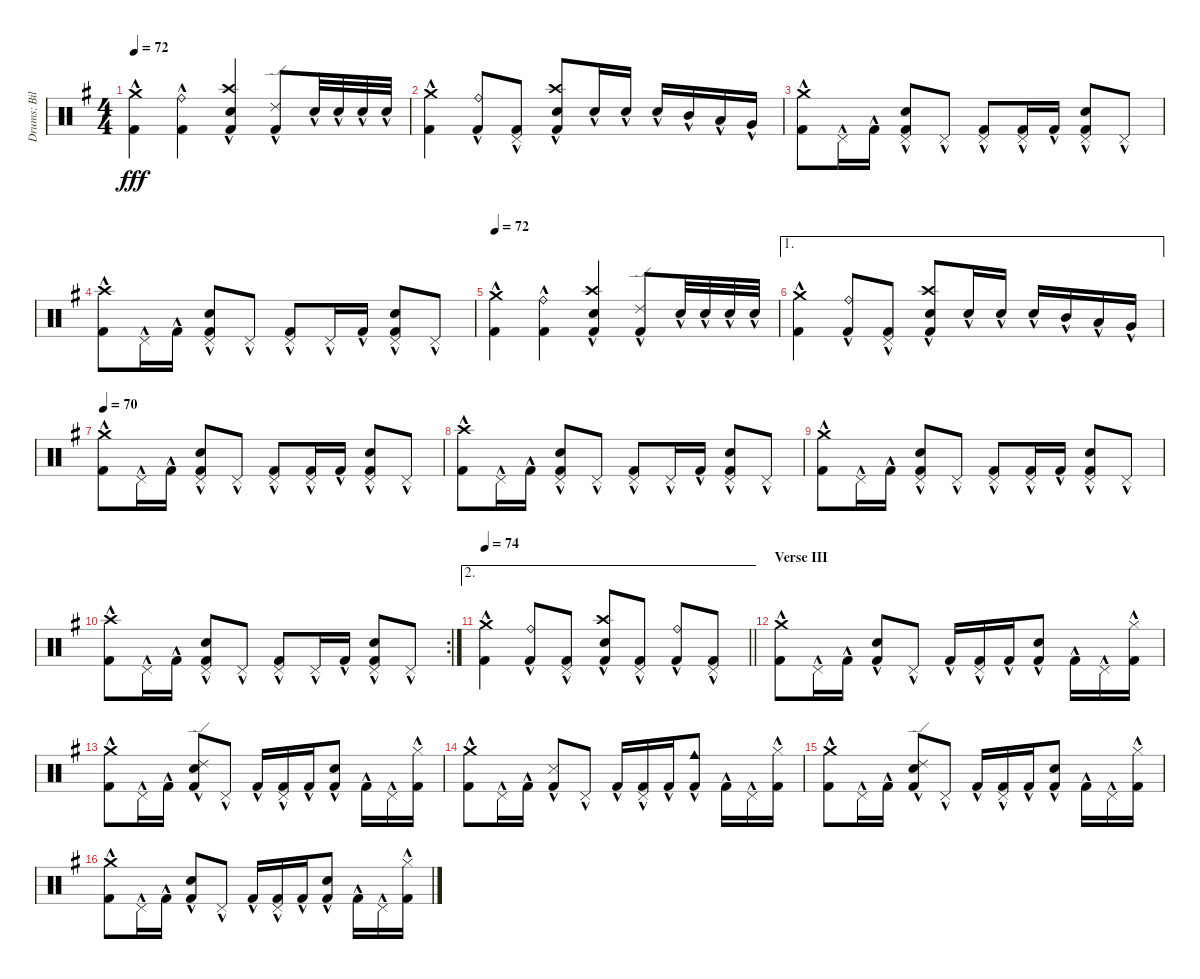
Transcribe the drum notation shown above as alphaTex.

\track ("Drums: Bill" "Drums: Bil") {instrument percussion}
\staff {score}
\articulation defaults
\ts (4 4)
\tempo 72
\clef neutral
\ks g
("Crash medium (hit)"{hac} "Kick (hit) 2"{hac}).4{dy fff} ("Ride (bell)"{hac} "Kick (hit) 2"{hac}).4 ("Crash high (hit)"{hac} "Snare (hit) 2"{hac} "Kick (hit) 2"{hac}).4 ("Ride (edge) 2"{hac} "Kick (hit) 2"{hac}).8 "Snare (hit) 2"{hac}.32 "Snare (hit) 2"{hac}.32 "Snare (hit) 2"{hac}.32 "Snare (hit) 2"{hac}.32 |
("Crash medium (hit)"{hac} "Kick (hit) 2"{hac}).4 ("Ride (bell)"{hac} "Kick (hit) 2"{hac}).8 ("Pedal Hi-Hat (hit)"{hac} "Kick (hit) 2"{hac}).8 ("Crash high (hit)"{hac} "Snare (hit) 2"{hac} "Kick (hit) 2"{hac}).8 "Snare (hit) 2"{hac}.16 "Snare (hit) 2"{hac}.16 "Snare (hit) 2"{hac}.16 "Mid Tom (hit)"{hac}.16 "Low Tom (hit)"{hac}.16 "Very Low Tom (hit)"{hac}.16 |
("Crash medium (hit)"{hac} "Kick (hit) 2"{hac}).8 "Pedal Hi-Hat (hit)"{hac}.16 "Kick (hit) 2"{hac}.16 ("Pedal Hi-Hat (hit)"{hac} "Snare (hit) 2"{hac} "Kick (hit) 2"{hac}).8 "Pedal Hi-Hat (hit)"{hac}.8 ("Pedal Hi-Hat (hit)"{hac} "Kick (hit) 2"{hac}).8 ("Pedal Hi-Hat (hit)"{hac} "Kick (hit) 2"{hac}).16 "Kick (hit) 2"{hac}.16 ("Pedal Hi-Hat (hit)"{hac} "Snare (hit) 2"{hac} "Kick (hit) 2"{hac}).8 "Pedal Hi-Hat (hit)"{hac}.8 |
("Crash high (hit)"{hac} "Kick (hit) 2"{hac}).8 "Pedal Hi-Hat (hit)"{hac}.16 "Kick (hit) 2"{hac}.16 ("Pedal Hi-Hat (hit)"{hac} "Snare (hit) 2"{hac} "Kick (hit) 2"{hac}).8 "Pedal Hi-Hat (hit)"{hac}.8 ("Pedal Hi-Hat (hit)"{hac} "Kick (hit) 2"{hac}).8 "Pedal Hi-Hat (hit)"{hac}.16 "Kick (hit) 2"{hac}.16 ("Pedal Hi-Hat (hit)"{hac} "Snare (hit) 2"{hac} "Kick (hit) 2"{hac}).8 "Pedal Hi-Hat (hit)"{hac}.8 |
\tempo 72
("Crash medium (hit)"{hac} "Kick (hit) 2"{hac}).4 ("Ride (bell)"{hac} "Kick (hit) 2"{hac}).4 ("Crash high (hit)"{hac} "Snare (hit) 2"{hac} "Kick (hit) 2"{hac}).4 ("Ride (edge) 2"{hac} "Kick (hit) 2"{hac}).8 "Snare (hit) 2"{hac}.32 "Snare (hit) 2"{hac}.32 "Snare (hit) 2"{hac}.32 "Snare (hit) 2"{hac}.32 |
\ae 1
("Crash medium (hit)"{hac} "Kick (hit) 2"{hac}).4 ("Ride (bell)"{hac} "Kick (hit) 2"{hac}).8 ("Pedal Hi-Hat (hit)"{hac} "Kick (hit) 2"{hac}).8 ("Crash high (hit)"{hac} "Snare (hit) 2"{hac} "Kick (hit) 2"{hac}).8 "Snare (hit) 2"{hac}.16 "Snare (hit) 2"{hac}.16 "Snare (hit) 2"{hac}.16 "Mid Tom (hit)"{hac}.16 "Low Tom (hit)"{hac}.16 "Very Low Tom (hit)"{hac}.16 |
\tempo 70
("Crash medium (hit)"{hac} "Kick (hit) 2"{hac}).8 "Pedal Hi-Hat (hit)"{hac}.16 "Kick (hit) 2"{hac}.16 ("Pedal Hi-Hat (hit)"{hac} "Snare (hit) 2"{hac} "Kick (hit) 2"{hac}).8 "Pedal Hi-Hat (hit)"{hac}.8 ("Pedal Hi-Hat (hit)"{hac} "Kick (hit) 2"{hac}).8 ("Pedal Hi-Hat (hit)"{hac} "Kick (hit) 2"{hac}).16 "Kick (hit) 2"{hac}.16 ("Pedal Hi-Hat (hit)"{hac} "Snare (hit) 2"{hac} "Kick (hit) 2"{hac}).8 "Pedal Hi-Hat (hit)"{hac}.8 |
("Crash high (hit)"{hac} "Kick (hit) 2"{hac}).8 "Pedal Hi-Hat (hit)"{hac}.16 "Kick (hit) 2"{hac}.16 ("Pedal Hi-Hat (hit)"{hac} "Snare (hit) 2"{hac} "Kick (hit) 2"{hac}).8 "Pedal Hi-Hat (hit)"{hac}.8 ("Pedal Hi-Hat (hit)"{hac} "Kick (hit) 2"{hac}).8 "Pedal Hi-Hat (hit)"{hac}.16 "Kick (hit) 2"{hac}.16 ("Pedal Hi-Hat (hit)"{hac} "Snare (hit) 2"{hac} "Kick (hit) 2"{hac}).8 "Pedal Hi-Hat (hit)"{hac}.8 |
("Crash medium (hit)"{hac} "Kick (hit) 2"{hac}).8 "Pedal Hi-Hat (hit)"{hac}.16 "Kick (hit) 2"{hac}.16 ("Pedal Hi-Hat (hit)"{hac} "Snare (hit) 2"{hac} "Kick (hit) 2"{hac}).8 "Pedal Hi-Hat (hit)"{hac}.8 ("Pedal Hi-Hat (hit)"{hac} "Kick (hit) 2"{hac}).8 ("Pedal Hi-Hat (hit)"{hac} "Kick (hit) 2"{hac}).16 "Kick (hit) 2"{hac}.16 ("Pedal Hi-Hat (hit)"{hac} "Snare (hit) 2"{hac} "Kick (hit) 2"{hac}).8 "Pedal Hi-Hat (hit)"{hac}.8 |
\rc 2
("Crash high (hit)"{hac} "Kick (hit) 2"{hac}).8 "Pedal Hi-Hat (hit)"{hac}.16 "Kick (hit) 2"{hac}.16 ("Pedal Hi-Hat (hit)"{hac} "Snare (hit) 2"{hac} "Kick (hit) 2"{hac}).8 "Pedal Hi-Hat (hit)"{hac}.8 ("Pedal Hi-Hat (hit)"{hac} "Kick (hit) 2"{hac}).8 "Pedal Hi-Hat (hit)"{hac}.16 "Kick (hit) 2"{hac}.16 ("Pedal Hi-Hat (hit)"{hac} "Snare (hit) 2"{hac} "Kick (hit) 2"{hac}).8 "Pedal Hi-Hat (hit)"{hac}.8 |
\ae 2
\tempo 74
\barLineRight lightlight
("Crash medium (hit)"{hac} "Kick (hit) 2"{hac}).4 ("Ride (bell)"{hac} "Kick (hit) 2"{hac}).8 ("Pedal Hi-Hat (hit)"{hac} "Kick (hit) 2"{hac}).8 ("Crash high (hit)"{hac} "Snare (hit) 2"{hac} "Kick (hit) 2"{hac}).8 ("Pedal Hi-Hat (hit)"{hac} "Kick (hit) 2"{hac}).8 ("Ride (bell)"{hac} "Kick (hit) 2"{hac}).8 ("Pedal Hi-Hat (hit)"{hac} "Kick (hit) 2"{hac}).8 |
\section ("" "Verse III")
("Crash medium (hit)"{hac} "Kick (hit) 2"{hac}).8 "Pedal Hi-Hat (hit)"{hac}.16 "Kick (hit) 2"{hac}.16 ("Snare (hit) 2"{hac} "Kick (hit) 2"{hac}).8 "Pedal Hi-Hat (hit)"{hac}.8 "Kick (hit) 2"{hac}.16 ("Pedal Hi-Hat (hit)"{hac} "Kick (hit) 2"{hac}).16 "Kick (hit) 2"{hac}.16 ("Snare (hit) 2"{hac} "Kick (hit) 2"{hac}).8 "Kick (hit) 2"{hac}.16 "Pedal Hi-Hat (hit)"{hac}.16 ("Hi-Hat (closed)" "Kick (hit) 2"{hac}).16 |
("Crash medium (hit)"{hac} "Kick (hit) 2"{hac}).8 "Pedal Hi-Hat (hit)"{hac}.16 "Kick (hit) 2"{hac}.16 ("Ride (edge) 2" "Snare (hit) 2"{hac} "Kick (hit) 2"{hac}).8 "Pedal Hi-Hat (hit)"{hac}.8 "Kick (hit) 2"{hac}.16 ("Pedal Hi-Hat (hit)"{hac} "Kick (hit) 2"{hac}).16 "Kick (hit) 2"{hac}.16 ("Snare (hit) 2"{hac} "Kick (hit) 2"{hac}).8 "Kick (hit) 2"{hac}.16 "Pedal Hi-Hat (hit)"{hac}.16 ("Hi-Hat (closed)" "Kick (hit) 2"{hac}).16 |
("Crash medium (hit)"{hac} "Kick (hit) 2"{hac}).8 "Pedal Hi-Hat (hit)"{hac}.16 "Kick (hit) 2"{hac}.16 ("Kick (hit) 2"{hac} "Snare (side stick) 3").8 "Pedal Hi-Hat (hit)"{hac}.8 "Kick (hit) 2"{hac}.16 ("Pedal Hi-Hat (hit)"{hac} "Kick (hit) 2"{hac}).16 "Kick (hit) 2"{hac}.16 ("Kick (hit) 2"{hac} "Cowbell medium (hit)").8 "Kick (hit) 2"{hac}.16 "Pedal Hi-Hat (hit)"{hac}.16 ("Hi-Hat (closed)" "Kick (hit) 2"{hac}).16 |
("Crash medium (hit)"{hac} "Kick (hit) 2"{hac}).8 "Pedal Hi-Hat (hit)"{hac}.16 "Kick (hit) 2"{hac}.16 ("Ride (edge) 2" "Snare (hit) 2"{hac} "Kick (hit) 2"{hac}).8 "Pedal Hi-Hat (hit)"{hac}.8 "Kick (hit) 2"{hac}.16 ("Pedal Hi-Hat (hit)"{hac} "Kick (hit) 2"{hac}).16 "Kick (hit) 2"{hac}.16 ("Snare (hit) 2"{hac} "Kick (hit) 2"{hac}).8 "Kick (hit) 2"{hac}.16 "Pedal Hi-Hat (hit)"{hac}.16 ("Hi-Hat (closed)" "Kick (hit) 2"{hac}).16 |
("Crash medium (hit)"{hac} "Kick (hit) 2"{hac}).8 "Pedal Hi-Hat (hit)"{hac}.16 "Kick (hit) 2"{hac}.16 ("Snare (hit) 2"{hac} "Kick (hit) 2"{hac}).8 "Pedal Hi-Hat (hit)"{hac}.8 "Kick (hit) 2"{hac}.16 ("Pedal Hi-Hat (hit)"{hac} "Kick (hit) 2"{hac}).16 "Kick (hit) 2"{hac}.16 ("Snare (hit) 2"{hac} "Kick (hit) 2"{hac}).8 "Kick (hit) 2"{hac}.16 "Pedal Hi-Hat (hit)"{hac}.16 ("Hi-Hat (closed)" "Kick (hit) 2"{hac}).16
